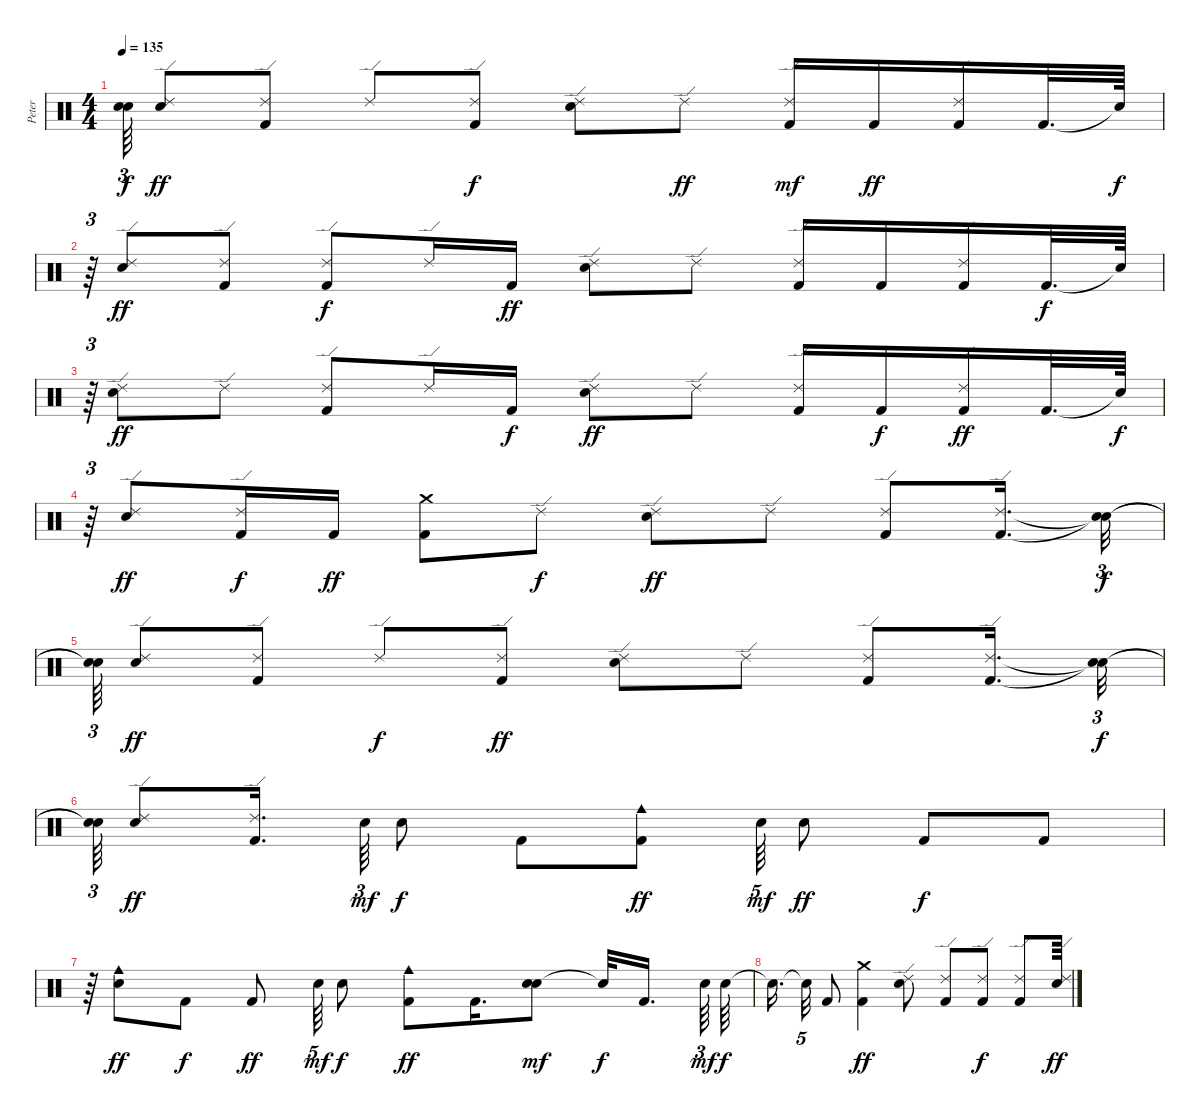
\track ("Peter" "Peter") {instrument percussion}
\staff {score}
\articulation defaults
\ts (4 4)
\tempo 135
\clef neutral
\ks c
("Snare (hit)"{t} "Snare (hit)"{t}).64{tu (3 2) dy f} ("Ride (edge) 2" "Electric Snare (hit)").8{dy ff} ("Ride (edge) 2" "Kick (hit) 2").8 "Ride (edge) 2".8 ("Kick (hit) 2" "Ride (edge) 2").8{dy f} ("Ride (edge) 2" "Electric Snare (hit)").8 "Ride (edge) 2".8{dy ff} ("Ride (edge) 2" "Kick (hit) 2").16{dy mf} "Kick (hit) 2".16{dy ff} ("Kick (hit) 2" "Ride (edge) 2").16 "Kick (hit) 2".32{d} "Snare (hit)"{t}.64{dy f} |
r.64{tu (3 2)} ("Electric Snare (hit)" "Ride (edge) 2").8{dy ff} ("Ride (edge) 2" "Kick (hit) 2").8 ("Ride (edge) 2" "Kick (hit) 2").8{dy f} "Ride (edge) 2".16 "Kick (hit) 2".16{dy ff} ("Electric Snare (hit)" "Ride (edge) 2").8 "Ride (edge) 2".8 ("Kick (hit) 2" "Ride (edge) 2").16 "Kick (hit) 2".16 ("Ride (edge) 2" "Kick (hit) 2").16 "Kick (hit) 2".32{d dy f} "Snare (hit)"{t}.64 |
r.64{tu (3 2)} ("Electric Snare (hit)" "Ride (edge) 2").8{dy ff} "Ride (edge) 2".8 ("Kick (hit) 2" "Ride (edge) 2").8 "Ride (edge) 2".16 "Kick (hit) 2".16{dy f} ("Electric Snare (hit)" "Ride (edge) 2").8{dy ff} "Ride (edge) 2".8 ("Kick (hit) 2" "Ride (edge) 2").16 "Kick (hit) 2".16{dy f} ("Kick (hit) 2" "Ride (edge) 2").16{dy ff} "Kick (hit) 2".32{d} "Snare (hit)"{t}.64{dy f} |
r.64{tu (3 2)} ("Ride (edge) 2" "Electric Snare (hit)").8{dy ff} ("Kick (hit) 2" "Ride (edge) 2").16{dy f} "Kick (hit) 2".16{dy ff} ("Kick (hit) 2" "Crash medium (hit)").8 "Ride (edge) 2".8{dy f} ("Electric Snare (hit)" "Ride (edge) 2").8{dy ff} "Ride (edge) 2".8 ("Ride (edge) 2" "Kick (hit) 2").8 ("Kick (hit) 2" "Ride (edge) 2").16{d} ("Snare (hit)"{t} "Snare (hit)"{t}).32{tu (3 2) dy f} |
("Snare (hit)"{t} "Snare (hit)"{t}).64{tu (3 2)} ("Electric Snare (hit)" "Ride (edge) 2").8{dy ff} ("Ride (edge) 2" "Kick (hit) 2").8 "Ride (edge) 2".8{dy f} ("Kick (hit) 2" "Ride (edge) 2").8{dy ff} ("Ride (edge) 2" "Electric Snare (hit)").8 "Ride (edge) 2".8 ("Kick (hit) 2" "Ride (edge) 2").8 ("Ride (edge) 2" "Kick (hit) 2").16{d} ("Snare (hit)"{t} "Snare (hit)"{t}).32{tu (3 2) dy f} |
("Snare (hit)"{t} "Snare (hit)"{t}).64{tu (3 2)} ("Electric Snare (hit)" "Ride (edge) 2").8{dy ff} ("Kick (hit) 2" "Ride (edge) 2").16{d} "Electric Snare (hit)".64{tu (3 2) dy mf} "Electric Snare (hit)".8{dy f} "Kick (hit) 2".8 ("Kick (hit) 2" "Cowbell medium (hit)").8{dy ff} "Electric Snare (hit)".64{tu (5 4) dy mf} "Electric Snare (hit)".8{dy ff} "Kick (hit) 2".8{dy f} "Kick (hit) 2".8 |
r.64 ("Electric Snare (hit)" "Cowbell medium (hit)").8{dy ff} "Kick (hit) 2".8{dy f} "Kick (hit) 2".8{dy ff} "Electric Snare (hit)".64{tu (5 4) dy mf} "Electric Snare (hit)".8{dy f} ("Cowbell medium (hit)" "Kick (hit) 2").8{dy ff} "Kick (hit) 2".16{d} ("Electric Snare (hit)" "Electric Snare (hit)").8{dy mf} "Snare (hit)"{t}.32{dy f} "Kick (hit) 2".16{d} "Electric Snare (hit)".64{tu (3 2) dy mf} "Electric Snare (hit)".64{dy f} |
"Snare (hit)"{t}.16{d} "Snare (hit)"{t}.32{tu (5 4)} "Kick (hit) 2".8 ("Kick (hit) 2" "Crash medium (hit)").4{dy ff} ("Ride (edge) 2" "Electric Snare (hit)").8 ("Kick (hit) 2" "Ride (edge) 2").8 ("Ride (edge) 2" "Kick (hit) 2").8{dy f} ("Ride (edge) 2" "Kick (hit) 2").8 ("Ride (edge) 2" "Electric Snare (hit)").64{dy ff}
